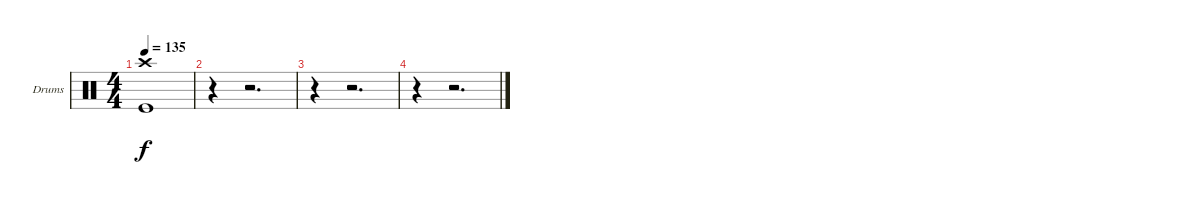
\defaultSystemsLayout 4
\bracketExtendMode groupsimilarinstruments
\firstSystemTrackNameOrientation horizontal
\otherSystemsTrackNameOrientation horizontal
\track ("Drumkit" "Drums") {instrument percussion}
\staff {score}
\articulation defaults
\ts (4 4)
\tempo 135
\clef neutral
\scale
0.5
\ks c
("Crash high (hit)" "Kick (hit)").1{dy f} |
\scale
0.5 r.4 r.2{d} |
r.4 r.2{d} |
r.4 r.2{d}
